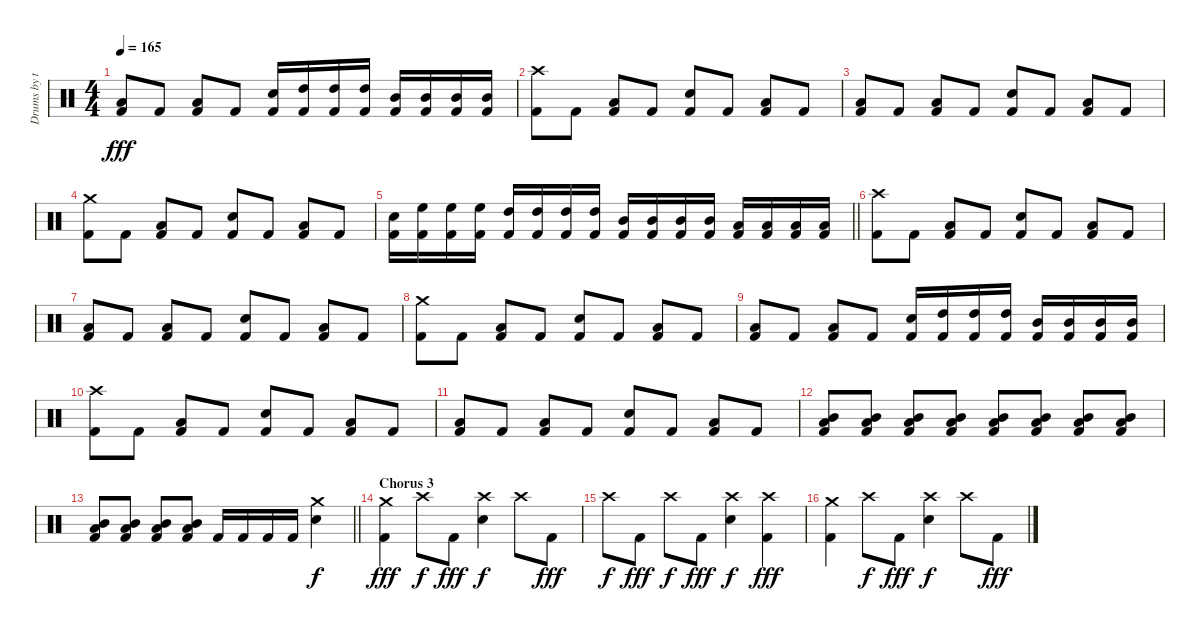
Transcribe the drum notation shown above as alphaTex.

\track ("Drums by terryn0" "Drums by t") {instrument percussion}
\staff {score}
\articulation defaults
\ts (4 4)
\tempo 165
\clef neutral
\ks c
("Low Tom (hit)" "Kick (hit) 2").8{dy fff} "Kick (hit) 2".8 ("Low Tom (hit)" "Kick (hit) 2").8 "Kick (hit) 2".8 ("Electric Snare (hit)" "Kick (hit) 2").16 ("High Tom (hit)" "Kick (hit) 2").16 ("High Tom (hit)" "Kick (hit) 2").16 ("High Tom (hit)" "Kick (hit) 2").16 ("Mid Tom (hit)" "Kick (hit) 2").16 ("Mid Tom (hit)" "Kick (hit) 2").16 ("Mid Tom (hit)" "Kick (hit) 2").16 ("Mid Tom (hit)" "Kick (hit) 2").16 |
("Crash high (hit)" "Kick (hit) 2").8 "Kick (hit) 2".8 ("Low Tom (hit)" "Kick (hit) 2").8 "Kick (hit) 2".8 ("Electric Snare (hit)" "Kick (hit) 2").8 "Kick (hit) 2".8 ("Low Tom (hit)" "Kick (hit) 2").8 "Kick (hit) 2".8 |
("Low Tom (hit)" "Kick (hit) 2").8 "Kick (hit) 2".8 ("Low Tom (hit)" "Kick (hit) 2").8 "Kick (hit) 2".8 ("Electric Snare (hit)" "Kick (hit) 2").8 "Kick (hit) 2".8 ("Low Tom (hit)" "Kick (hit) 2").8 "Kick (hit) 2".8 |
("Crash medium (hit)" "Kick (hit) 2").8 "Kick (hit) 2".8 ("Low Tom (hit)" "Kick (hit) 2").8 "Kick (hit) 2".8 ("Electric Snare (hit)" "Kick (hit) 2").8 "Kick (hit) 2".8 ("Low Tom (hit)" "Kick (hit) 2").8 "Kick (hit) 2".8 |
\barLineRight lightlight
("Electric Snare (hit)" "Kick (hit) 2").16 ("High Floor Tom (hit)" "Kick (hit) 2").16 ("High Floor Tom (hit)" "Kick (hit) 2").16 ("High Floor Tom (hit)" "Kick (hit) 2").16 ("High Tom (hit)" "Kick (hit) 2").16 ("High Tom (hit)" "Kick (hit) 2").16 ("High Tom (hit)" "Kick (hit) 2").16 ("High Tom (hit)" "Kick (hit) 2").16 ("Mid Tom (hit)" "Kick (hit) 2").16 ("Mid Tom (hit)" "Kick (hit) 2").16 ("Mid Tom (hit)" "Kick (hit) 2").16 ("Mid Tom (hit)" "Kick (hit) 2").16 ("Low Tom (hit)" "Kick (hit) 2").16 ("Low Tom (hit)" "Kick (hit) 2").16 ("Low Tom (hit)" "Kick (hit) 2").16 ("Low Tom (hit)" "Kick (hit) 2").16 |
("Crash high (hit)" "Kick (hit) 2").8 "Kick (hit) 2".8 ("Low Tom (hit)" "Kick (hit) 2").8 "Kick (hit) 2".8 ("Electric Snare (hit)" "Kick (hit) 2").8 "Kick (hit) 2".8 ("Low Tom (hit)" "Kick (hit) 2").8 "Kick (hit) 2".8 |
("Low Tom (hit)" "Kick (hit) 2").8 "Kick (hit) 2".8 ("Low Tom (hit)" "Kick (hit) 2").8 "Kick (hit) 2".8 ("Electric Snare (hit)" "Kick (hit) 2").8 "Kick (hit) 2".8 ("Low Tom (hit)" "Kick (hit) 2").8 "Kick (hit) 2".8 |
("Crash medium (hit)" "Kick (hit) 2").8 "Kick (hit) 2".8 ("Low Tom (hit)" "Kick (hit) 2").8 "Kick (hit) 2".8 ("Electric Snare (hit)" "Kick (hit) 2").8 "Kick (hit) 2".8 ("Low Tom (hit)" "Kick (hit) 2").8 "Kick (hit) 2".8 |
("Low Tom (hit)" "Kick (hit) 2").8 "Kick (hit) 2".8 ("Low Tom (hit)" "Kick (hit) 2").8 "Kick (hit) 2".8 ("Electric Snare (hit)" "Kick (hit) 2").16 ("High Tom (hit)" "Kick (hit) 2").16 ("High Tom (hit)" "Kick (hit) 2").16 ("High Tom (hit)" "Kick (hit) 2").16 ("Mid Tom (hit)" "Kick (hit) 2").16 ("Mid Tom (hit)" "Kick (hit) 2").16 ("Mid Tom (hit)" "Kick (hit) 2").16 ("Mid Tom (hit)" "Kick (hit) 2").16 |
("Crash high (hit)" "Kick (hit) 2").8 "Kick (hit) 2".8 ("Low Tom (hit)" "Kick (hit) 2").8 "Kick (hit) 2".8 ("Electric Snare (hit)" "Kick (hit) 2").8 "Kick (hit) 2".8 ("Low Tom (hit)" "Kick (hit) 2").8 "Kick (hit) 2".8 |
("Low Tom (hit)" "Kick (hit) 2").8 "Kick (hit) 2".8 ("Low Tom (hit)" "Kick (hit) 2").8 "Kick (hit) 2".8 ("Electric Snare (hit)" "Kick (hit) 2").8 "Kick (hit) 2".8 ("Low Tom (hit)" "Kick (hit) 2").8 "Kick (hit) 2".8 |
("Mid Tom (hit)" "Low Tom (hit)" "Kick (hit) 2").8 ("Mid Tom (hit)" "Low Tom (hit)" "Kick (hit) 2").8 ("Mid Tom (hit)" "Low Tom (hit)" "Kick (hit) 2").8 ("Mid Tom (hit)" "Low Tom (hit)" "Kick (hit) 2").8 ("Mid Tom (hit)" "Low Tom (hit)" "Kick (hit) 2").8 ("Mid Tom (hit)" "Low Tom (hit)" "Kick (hit) 2").8 ("Mid Tom (hit)" "Low Tom (hit)" "Kick (hit) 2").8 ("Mid Tom (hit)" "Low Tom (hit)" "Kick (hit) 2").8 |
\barLineRight lightlight
("Mid Tom (hit)" "Low Tom (hit)" "Kick (hit) 2").8 ("Mid Tom (hit)" "Low Tom (hit)" "Kick (hit) 2").8 ("Mid Tom (hit)" "Low Tom (hit)" "Kick (hit) 2").8 ("Mid Tom (hit)" "Low Tom (hit)" "Kick (hit) 2").8 "Kick (hit) 2".16 "Kick (hit) 2".16 "Kick (hit) 2".16 "Kick (hit) 2".16 ("Crash medium (hit)" "Electric Snare (hit)").4{dy f} |
\section ("" "Chorus 3")
("Crash medium (hit)" "Kick (hit) 2").4{dy fff} "Crash high (hit)".8{dy f} "Kick (hit) 2".8{dy fff} ("Crash high (hit)" "Electric Snare (hit)").4{dy f} "Crash high (hit)".8 "Kick (hit) 2".8{dy fff} |
"Crash high (hit)".8{dy f} "Kick (hit) 2".8{dy fff} "Crash high (hit)".8{dy f} "Kick (hit) 2".8{dy fff} ("Crash high (hit)" "Electric Snare (hit)").4{dy f} ("Crash high (hit)" "Kick (hit) 2").4{dy fff} |
("Crash medium (hit)" "Kick (hit) 2").4 "Crash high (hit)".8{dy f} "Kick (hit) 2".8{dy fff} ("Crash high (hit)" "Electric Snare (hit)").4{dy f} "Crash high (hit)".8 "Kick (hit) 2".8{dy fff}
